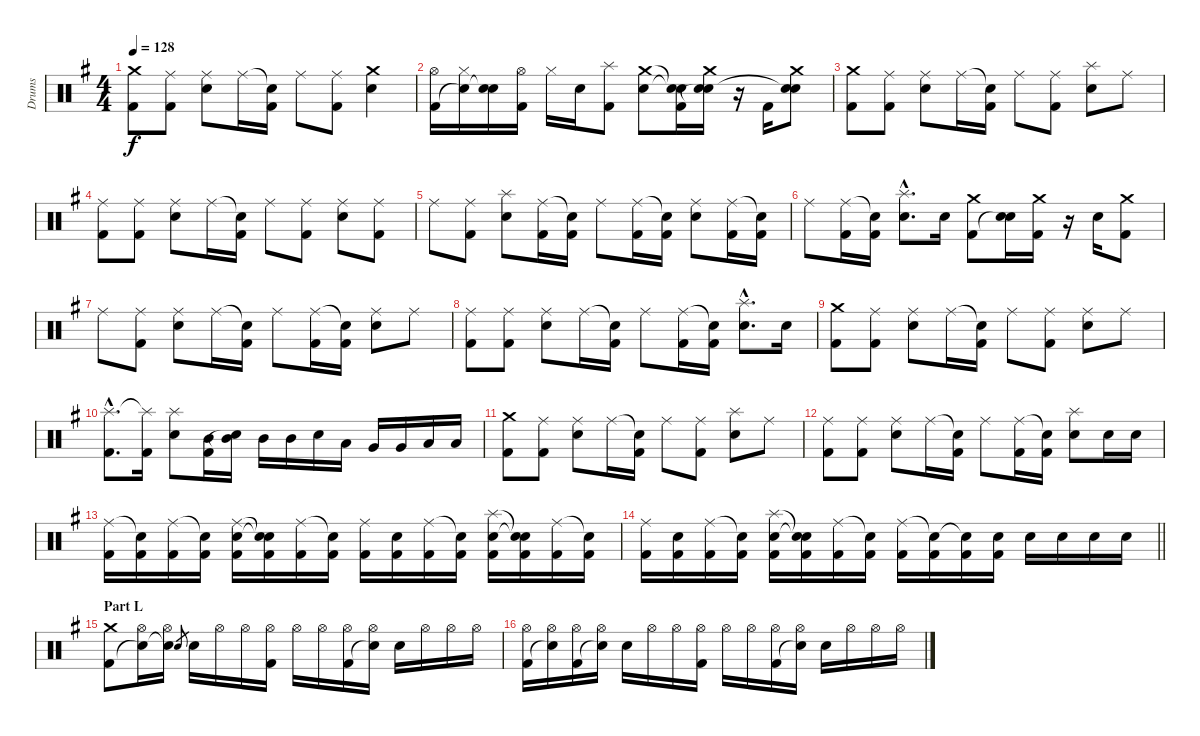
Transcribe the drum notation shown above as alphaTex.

\track ("Drums" "Drums") {instrument percussion}
\staff {score}
\articulation defaults
\ts (4 4)
\tempo 128
\clef neutral
\ks g
("Crash medium (hit)" "Kick (hit) 2").8{dy f} ("Ride (middle)" "Kick (hit) 2").8 ("Ride (middle)" "Electric Snare (hit)").8 "Ride (middle)".16 ("Snare (hit)"{t} "Kick (hit) 2").16 "Ride (middle)".8 ("Ride (middle)" "Kick (hit) 2").8 ("Crash medium (hit)" "Electric Snare (hit)").4 |
("Hi-Hat (open)" "Kick (hit) 2").16 ("Hi-Hat (closed)" "Snare (hit)"{t}).16 ("Electric Snare (hit)" "Snare (hit)"{t}).16 ("Hi-Hat (open)" "Kick (hit) 2").16 "Hi-Hat (closed)".16 "Electric Snare (hit)".16 ("Splash (hit)" "Kick (hit) 2").8 ("Crash medium (hit)" "Electric Snare (hit)").8 ("Snare (hit)"{t} "Snare (hit)"{t} "Kick (hit) 2").16 ("Crash medium (hit)" "Electric Snare (hit)" "Snare (hit)"{t}).16 r.16 "Kick (hit) 2".16 ("Crash medium (hit)" "Electric Snare (hit)" "Snare (hit)"{t}).8 |
("Crash medium (hit)" "Kick (hit) 2").8 ("Ride (middle)" "Kick (hit) 2").8 ("Ride (middle)" "Electric Snare (hit)").8 "Ride (middle)".16 ("Snare (hit)"{t} "Kick (hit) 2").16 "Ride (middle)".8 ("Ride (middle)" "Kick (hit) 2").8 ("Splash (hit)" "Electric Snare (hit)").8 "Ride (middle)".8 |
("Ride (middle)" "Kick (hit) 2").8 ("Ride (middle)" "Kick (hit) 2").8 ("Ride (middle)" "Electric Snare (hit)").8 "Ride (middle)".16 ("Snare (hit)"{t} "Kick (hit) 2").16 "Ride (middle)".8 ("Ride (middle)" "Kick (hit) 2").8 ("Ride (middle)" "Electric Snare (hit)").8 ("Ride (middle)" "Kick (hit) 2").8 |
"Ride (middle)".8 ("Ride (middle)" "Kick (hit) 2").8 ("Splash (hit)" "Electric Snare (hit)").8 ("Ride (middle)" "Kick (hit) 2").16 ("Snare (hit)"{t} "Kick (hit) 2").16 "Ride (middle)".8 ("Ride (middle)" "Kick (hit) 2").16 ("Snare (hit)"{t} "Kick (hit) 2").16 ("Ride (middle)" "Electric Snare (hit)").8 ("Ride (middle)" "Kick (hit) 2").16 ("Snare (hit)"{t} "Kick (hit) 2").16 |
"Ride (middle)".8 ("Ride (middle)" "Kick (hit) 2").16 ("Snare (hit)"{t} "Kick (hit) 2").16 ("Splash (hit)"{hac} "Electric Snare (hit)"{hac}).8{d} "Electric Snare (hit)".16 ("Crash medium (hit)" "Kick (hit) 2").8 ("Electric Snare (hit)" "Snare (hit)"{t}).16 ("Crash medium (hit)" "Kick (hit) 2").16 r.16 "Electric Snare (hit)".16 ("Crash medium (hit)" "Kick (hit) 2").8 |
"Ride (middle)".8 ("Ride (middle)" "Kick (hit) 2").8 ("Ride (middle)" "Electric Snare (hit)").8 "Ride (middle)".16 ("Snare (hit)"{t} "Kick (hit) 2").16 "Ride (middle)".8 ("Ride (middle)" "Kick (hit) 2").16 ("Snare (hit)"{t} "Kick (hit) 2").16 ("Ride (middle)" "Electric Snare (hit)").8 "Ride (middle)".8 |
("Ride (middle)" "Kick (hit) 2").8 ("Ride (middle)" "Kick (hit) 2").8 ("Ride (middle)" "Electric Snare (hit)").8 "Ride (middle)".16 ("Snare (hit)"{t} "Kick (hit) 2").16 "Ride (middle)".8 ("Ride (middle)" "Kick (hit) 2").16 ("Snare (hit)"{t} "Kick (hit) 2").16 ("Splash (hit)"{hac} "Electric Snare (hit)"{hac}).8{d} "Electric Snare (hit)".16 |
("Crash medium (hit)" "Kick (hit) 2").8 ("Ride (middle)" "Kick (hit) 2").8 ("Ride (middle)" "Electric Snare (hit)").8 "Ride (middle)".16 ("Snare (hit)"{t} "Kick (hit) 2").16 "Ride (middle)".8 ("Ride (middle)" "Kick (hit) 2").8 ("Ride (middle)" "Electric Snare (hit)").8 "Ride (middle)".8 |
("Splash (hit)"{hac} "Kick (hit) 2"{hac}).8{d} ("Splash (hit)"{t} "Kick (hit) 2").16 ("Splash (hit)" "Electric Snare (hit)").8 ("Mid Tom (hit)" "Kick (hit) 2").16 ("Mid Tom (hit)" "Snare (hit)"{t}).16 "Mid Tom (hit)".16 "Mid Tom (hit)".16 "Electric Snare (hit)".16 "Low Tom (hit)".16 "Very Low Tom (hit)".16 "Very Low Tom (hit)".16 "Low Floor Tom (hit)".16 "Low Floor Tom (hit)".16 |
("Crash medium (hit)" "Kick (hit) 2").8 ("Ride (middle)" "Kick (hit) 2").8 ("Ride (middle)" "Electric Snare (hit)").8 "Ride (middle)".16 ("Snare (hit)"{t} "Kick (hit) 2").16 "Ride (middle)".8 ("Ride (middle)" "Kick (hit) 2").8 ("Splash (hit)" "Electric Snare (hit)").8 "Ride (middle)".8 |
("Ride (middle)" "Kick (hit) 2").8 ("Ride (middle)" "Kick (hit) 2").8 ("Ride (middle)" "Electric Snare (hit)").8 "Ride (middle)".16 ("Snare (hit)"{t} "Kick (hit) 2").16 "Ride (middle)".8 ("Ride (middle)" "Kick (hit) 2").16 ("Snare (hit)"{t} "Kick (hit) 2").16 ("Splash (hit)" "Electric Snare (hit)").8 "Electric Snare (hit)".16 "Electric Snare (hit)".16 |
("Ride (middle)" "Kick (hit) 2").16 ("Snare (hit)"{t} "Kick (hit) 2").16 ("Ride (middle)" "Kick (hit) 2").16 ("Snare (hit)"{t} "Kick (hit) 2").16 ("Ride (middle)" "Electric Snare (hit)" "Kick (hit) 2").16 ("Snare (hit)"{t} "Snare (hit)"{t} "Kick (hit) 2").16 ("Ride (middle)" "Kick (hit) 2").16 ("Snare (hit)"{t} "Kick (hit) 2").16 ("Ride (middle)" "Kick (hit) 2").16 ("Electric Snare (hit)" "Kick (hit) 2").16 ("Ride (middle)" "Kick (hit) 2").16 ("Snare (hit)"{t} "Kick (hit) 2").16 ("Splash (hit)" "Electric Snare (hit)" "Kick (hit) 2").16 ("Snare (hit)"{t} "Snare (hit)"{t} "Kick (hit) 2").16 ("Ride (middle)" "Kick (hit) 2").16 ("Snare (hit)"{t} "Kick (hit) 2").16 |
\barLineRight lightlight
("Ride (middle)" "Kick (hit) 2").16 ("Electric Snare (hit)" "Kick (hit) 2").16 ("Ride (middle)" "Kick (hit) 2").16 ("Snare (hit)"{t} "Kick (hit) 2").16 ("Splash (hit)" "Electric Snare (hit)" "Kick (hit) 2").16 ("Snare (hit)"{t} "Snare (hit)"{t} "Kick (hit) 2").16 ("Ride (middle)" "Kick (hit) 2").16 ("Snare (hit)"{t} "Kick (hit) 2").16 ("Ride (middle)" "Kick (hit) 2").16 ("Snare (hit)"{t} "Kick (hit) 2").16 ("Snare (hit)"{t} "Kick (hit) 2").16 ("Electric Snare (hit)" "Kick (hit) 2").16 "Electric Snare (hit)".16 "Electric Snare (hit)".16 "Electric Snare (hit)".16 "Electric Snare (hit)".16 |
\section ("" "Part L")
("Crash medium (hit)" "Kick (hit) 2").8 ("Hi-Hat (open)" "Snare (hit)"{t}).16 ("Hi-Hat (open)" "Snare (hit)"{t}).16 "Electric Snare (hit)".8{gr} "Electric Snare (hit)".16 "Hi-Hat (open)".16 "Hi-Hat (open)".16 ("Hi-Hat (open)" "Kick (hit) 2").16 "Hi-Hat (open)".16 "Hi-Hat (open)".16 ("Hi-Hat (open)" "Kick (hit) 2").16 ("Hi-Hat (open)" "Snare (hit)"{t}).16 "Electric Snare (hit)".16 "Hi-Hat (open)".16 "Hi-Hat (open)".16 "Hi-Hat (open)".16 |
("Hi-Hat (open)" "Kick (hit) 2").16 ("Hi-Hat (open)" "Snare (hit)"{t}).16 ("Hi-Hat (open)" "Kick (hit) 2").16 ("Hi-Hat (open)" "Snare (hit)"{t}).16 "Electric Snare (hit)".16 "Hi-Hat (open)".16 "Hi-Hat (open)".16 ("Hi-Hat (open)" "Kick (hit) 2").16 "Hi-Hat (open)".16 "Hi-Hat (open)".16 ("Hi-Hat (open)" "Kick (hit) 2").16 ("Hi-Hat (open)" "Snare (hit)"{t}).16 "Electric Snare (hit)".16 "Hi-Hat (open)".16 "Hi-Hat (open)".16 "Hi-Hat (open)".16
